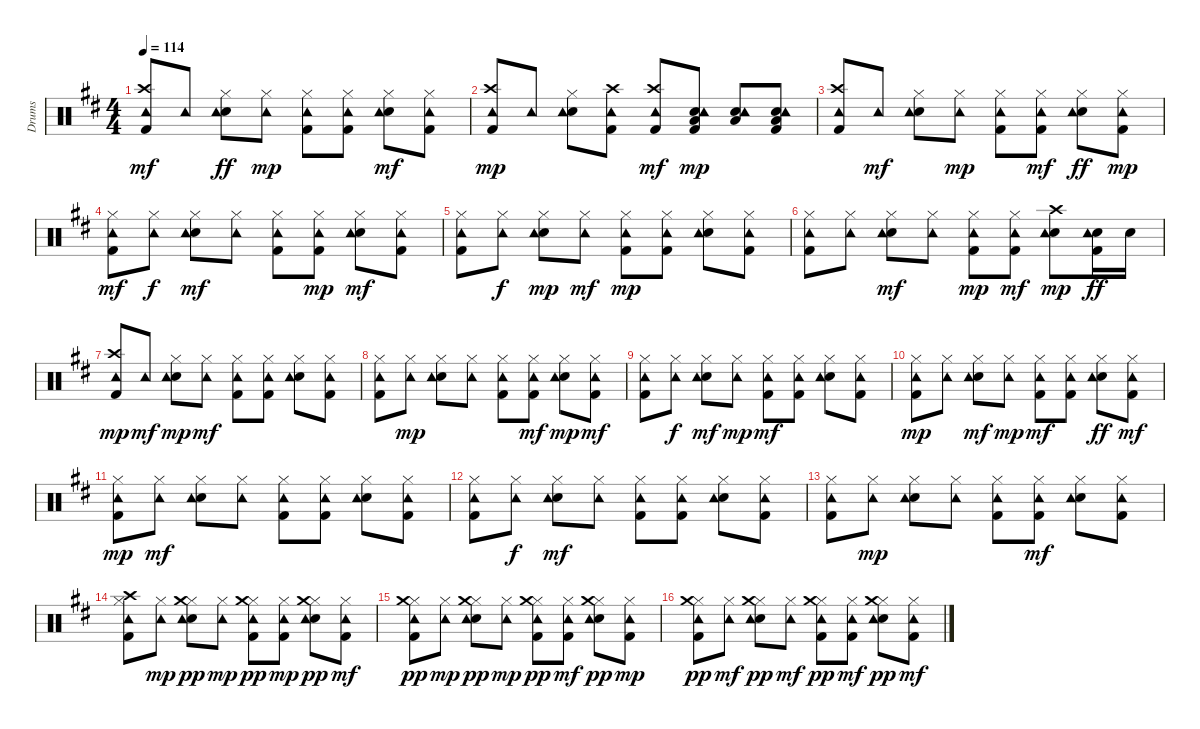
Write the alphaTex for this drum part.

\track ("Drums" "Drums") {instrument percussion}
\staff {score}
\articulation defaults
\ts (4 4)
\tempo 114
\clef neutral
\ks d
("Kick (hit) 2" "Crash high (hit)" "Tambourine (hit)").8{dy mf} "Tambourine (hit)".8 ("Snare (hit) 2" "Hi-Hat (closed)" "Tambourine (hit)").8{dy ff} ("Hi-Hat (closed)" "Tambourine (hit)").8{dy mp} ("Kick (hit) 2" "Hi-Hat (closed)" "Tambourine (hit)").8 ("Kick (hit) 2" "Hi-Hat (closed)" "Tambourine (hit)").8 ("Snare (hit) 2" "Hi-Hat (closed)" "Tambourine (hit)").8{dy mf} ("Kick (hit) 2" "Hi-Hat (closed)" "Tambourine (hit)").8 |
("Kick (hit) 2" "Crash high (hit)" "Tambourine (hit)").8{dy mp} "Tambourine (hit)".8 ("Snare (hit) 2" "Hi-Hat (closed)" "Tambourine (hit)").8 ("Kick (hit) 2" "Crash high (hit)" "Tambourine (hit)").8 ("Kick (hit) 2" "Crash high (hit)" "Tambourine (hit)").8{dy mf} ("Kick (hit) 2" "Snare (hit) 2" "Low Floor Tom (hit)" "Tambourine (hit)").8{dy mp} ("Snare (hit) 2" "Low Floor Tom (hit)" "Tambourine (hit)").8 ("Kick (hit) 2" "Snare (hit) 2" "Low Floor Tom (hit)" "Tambourine (hit)").8 |
("Kick (hit) 2" "Crash high (hit)" "Tambourine (hit)").8 "Tambourine (hit)".8{dy mf} ("Snare (hit) 2" "Hi-Hat (closed)" "Tambourine (hit)").8 ("Hi-Hat (closed)" "Tambourine (hit)").8{dy mp} ("Kick (hit) 2" "Hi-Hat (closed)" "Tambourine (hit)").8 ("Kick (hit) 2" "Hi-Hat (closed)" "Tambourine (hit)").8{dy mf} ("Snare (hit) 2" "Hi-Hat (closed)" "Tambourine (hit)").8{dy ff} ("Kick (hit) 2" "Hi-Hat (closed)" "Tambourine (hit)").8{dy mp} |
("Kick (hit) 2" "Hi-Hat (closed)" "Tambourine (hit)").8{dy mf} ("Hi-Hat (closed)" "Tambourine (hit)").8{dy f} ("Snare (hit) 2" "Hi-Hat (closed)" "Tambourine (hit)").8{dy mf} ("Hi-Hat (closed)" "Tambourine (hit)").8 ("Kick (hit) 2" "Hi-Hat (closed)" "Tambourine (hit)").8 ("Kick (hit) 2" "Hi-Hat (closed)" "Tambourine (hit)").8{dy mp} ("Snare (hit) 2" "Hi-Hat (closed)" "Tambourine (hit)").8{dy mf} ("Kick (hit) 2" "Hi-Hat (closed)" "Tambourine (hit)").8 |
("Kick (hit) 2" "Hi-Hat (closed)" "Tambourine (hit)").8 ("Hi-Hat (closed)" "Tambourine (hit)").8{dy f} ("Snare (hit) 2" "Hi-Hat (closed)" "Tambourine (hit)").8{dy mp} ("Hi-Hat (closed)" "Tambourine (hit)").8{dy mf} ("Kick (hit) 2" "Hi-Hat (closed)" "Tambourine (hit)").8{dy mp} ("Kick (hit) 2" "Hi-Hat (closed)" "Tambourine (hit)").8 ("Snare (hit) 2" "Hi-Hat (closed)" "Tambourine (hit)").8 ("Kick (hit) 2" "Hi-Hat (closed)" "Tambourine (hit)").8 |
("Kick (hit) 2" "Hi-Hat (closed)" "Tambourine (hit)").8 ("Hi-Hat (closed)" "Tambourine (hit)").8 ("Snare (hit) 2" "Hi-Hat (closed)" "Tambourine (hit)").8{dy mf} ("Hi-Hat (closed)" "Tambourine (hit)").8 ("Kick (hit) 2" "Hi-Hat (closed)" "Tambourine (hit)").8{dy mp} ("Kick (hit) 2" "Hi-Hat (closed)" "Tambourine (hit)").8{dy mf} ("Snare (hit) 2" "Crash high (hit)" "Tambourine (hit)").8{dy mp} ("Kick (hit) 2" "Snare (hit) 2" "Tambourine (hit)").16{dy ff} "Snare (hit) 2".16 |
("Kick (hit) 2" "Crash high (hit)" "Tambourine (hit)").8{dy mp} "Tambourine (hit)".8{dy mf} ("Snare (hit) 2" "Hi-Hat (closed)" "Tambourine (hit)").8{dy mp} ("Hi-Hat (closed)" "Tambourine (hit)").8{dy mf} ("Kick (hit) 2" "Hi-Hat (closed)" "Tambourine (hit)").8 ("Kick (hit) 2" "Hi-Hat (closed)" "Tambourine (hit)").8 ("Snare (hit) 2" "Hi-Hat (closed)" "Tambourine (hit)").8 ("Kick (hit) 2" "Hi-Hat (closed)" "Tambourine (hit)").8 |
("Kick (hit) 2" "Hi-Hat (closed)" "Tambourine (hit)").8 ("Hi-Hat (closed)" "Tambourine (hit)").8{dy mp} ("Snare (hit) 2" "Hi-Hat (closed)" "Tambourine (hit)").8 ("Hi-Hat (closed)" "Tambourine (hit)").8 ("Kick (hit) 2" "Hi-Hat (closed)" "Tambourine (hit)").8 ("Kick (hit) 2" "Hi-Hat (closed)" "Tambourine (hit)").8{dy mf} ("Snare (hit) 2" "Hi-Hat (closed)" "Tambourine (hit)").8{dy mp} ("Kick (hit) 2" "Hi-Hat (closed)" "Tambourine (hit)").8{dy mf} |
("Kick (hit) 2" "Hi-Hat (closed)" "Tambourine (hit)").8 ("Hi-Hat (closed)" "Tambourine (hit)").8{dy f} ("Snare (hit) 2" "Hi-Hat (closed)" "Tambourine (hit)").8{dy mf} ("Hi-Hat (closed)" "Tambourine (hit)").8{dy mp} ("Kick (hit) 2" "Hi-Hat (closed)" "Tambourine (hit)").8{dy mf} ("Kick (hit) 2" "Hi-Hat (closed)" "Tambourine (hit)").8 ("Snare (hit) 2" "Hi-Hat (closed)" "Tambourine (hit)").8 ("Kick (hit) 2" "Hi-Hat (closed)" "Tambourine (hit)").8 |
("Kick (hit) 2" "Hi-Hat (closed)" "Tambourine (hit)").8{dy mp} ("Hi-Hat (closed)" "Tambourine (hit)").8 ("Snare (hit) 2" "Hi-Hat (closed)" "Tambourine (hit)").8{dy mf} ("Hi-Hat (closed)" "Tambourine (hit)").8{dy mp} ("Kick (hit) 2" "Hi-Hat (closed)" "Tambourine (hit)").8{dy mf} ("Kick (hit) 2" "Hi-Hat (closed)" "Tambourine (hit)").8 ("Snare (hit) 2" "Hi-Hat (closed)" "Tambourine (hit)").8{dy ff} ("Kick (hit) 2" "Hi-Hat (closed)" "Tambourine (hit)").8{dy mf} |
("Kick (hit) 2" "Hi-Hat (closed)" "Tambourine (hit)").8{dy mp} ("Hi-Hat (closed)" "Tambourine (hit)").8{dy mf} ("Snare (hit) 2" "Hi-Hat (closed)" "Tambourine (hit)").8 ("Hi-Hat (closed)" "Tambourine (hit)").8 ("Kick (hit) 2" "Hi-Hat (closed)" "Tambourine (hit)").8 ("Kick (hit) 2" "Hi-Hat (closed)" "Tambourine (hit)").8 ("Snare (hit) 2" "Hi-Hat (closed)" "Tambourine (hit)").8 ("Kick (hit) 2" "Hi-Hat (closed)" "Tambourine (hit)").8 |
("Kick (hit) 2" "Hi-Hat (closed)" "Tambourine (hit)").8 ("Hi-Hat (closed)" "Tambourine (hit)").8{dy f} ("Snare (hit) 2" "Hi-Hat (closed)" "Tambourine (hit)").8{dy mf} ("Hi-Hat (closed)" "Tambourine (hit)").8 ("Kick (hit) 2" "Hi-Hat (closed)" "Tambourine (hit)").8 ("Kick (hit) 2" "Hi-Hat (closed)" "Tambourine (hit)").8 ("Snare (hit) 2" "Hi-Hat (closed)" "Tambourine (hit)").8 ("Kick (hit) 2" "Hi-Hat (closed)" "Tambourine (hit)").8 |
("Kick (hit) 2" "Hi-Hat (closed)" "Tambourine (hit)").8 ("Hi-Hat (closed)" "Tambourine (hit)").8{dy mp} ("Snare (hit) 2" "Hi-Hat (closed)" "Tambourine (hit)").8 ("Hi-Hat (closed)" "Tambourine (hit)").8 ("Kick (hit) 2" "Hi-Hat (closed)" "Tambourine (hit)").8 ("Kick (hit) 2" "Hi-Hat (closed)" "Tambourine (hit)").8{dy mf} ("Snare (hit) 2" "Hi-Hat (closed)" "Tambourine (hit)").8 ("Kick (hit) 2" "Hi-Hat (closed)" "Tambourine (hit)").8 |
("Kick (hit) 2" "Hi-Hat (closed)" "Crash high (hit)" "Tambourine (hit)").8 ("Hi-Hat (closed)" "Tambourine (hit)").8{dy mp} ("Snare (hit) 2" "Hi-Hat (closed)" "Tambourine (hit)" "Crash medium (hit)").8{dy pp} ("Hi-Hat (closed)" "Tambourine (hit)").8{dy mp} ("Kick (hit) 2" "Hi-Hat (closed)" "Tambourine (hit)" "Crash medium (hit)").8{dy pp} ("Kick (hit) 2" "Hi-Hat (closed)" "Tambourine (hit)").8{dy mp} ("Snare (hit) 2" "Hi-Hat (closed)" "Tambourine (hit)" "Crash medium (hit)").8{dy pp} ("Kick (hit) 2" "Hi-Hat (closed)" "Tambourine (hit)").8{dy mf} |
("Kick (hit) 2" "Hi-Hat (closed)" "Tambourine (hit)" "Crash medium (hit)").8{dy pp} ("Hi-Hat (closed)" "Tambourine (hit)").8{dy mp} ("Snare (hit) 2" "Hi-Hat (closed)" "Tambourine (hit)" "Crash medium (hit)").8{dy pp} ("Hi-Hat (closed)" "Tambourine (hit)").8{dy mp} ("Kick (hit) 2" "Hi-Hat (closed)" "Tambourine (hit)" "Crash medium (hit)").8{dy pp} ("Kick (hit) 2" "Hi-Hat (closed)" "Tambourine (hit)").8{dy mf} ("Snare (hit) 2" "Hi-Hat (closed)" "Tambourine (hit)" "Crash medium (hit)").8{dy pp} ("Kick (hit) 2" "Hi-Hat (closed)" "Tambourine (hit)").8{dy mp} |
("Kick (hit) 2" "Hi-Hat (closed)" "Tambourine (hit)" "Crash medium (hit)").8{dy pp} ("Hi-Hat (closed)" "Tambourine (hit)").8{dy mf} ("Snare (hit) 2" "Hi-Hat (closed)" "Tambourine (hit)" "Crash medium (hit)").8{dy pp} ("Hi-Hat (closed)" "Tambourine (hit)").8{dy mf} ("Kick (hit) 2" "Hi-Hat (closed)" "Tambourine (hit)" "Crash medium (hit)").8{dy pp} ("Kick (hit) 2" "Hi-Hat (closed)" "Tambourine (hit)").8{dy mf} ("Snare (hit) 2" "Hi-Hat (closed)" "Tambourine (hit)" "Crash medium (hit)").8{dy pp} ("Kick (hit) 2" "Hi-Hat (closed)" "Tambourine (hit)").8{dy mf}
